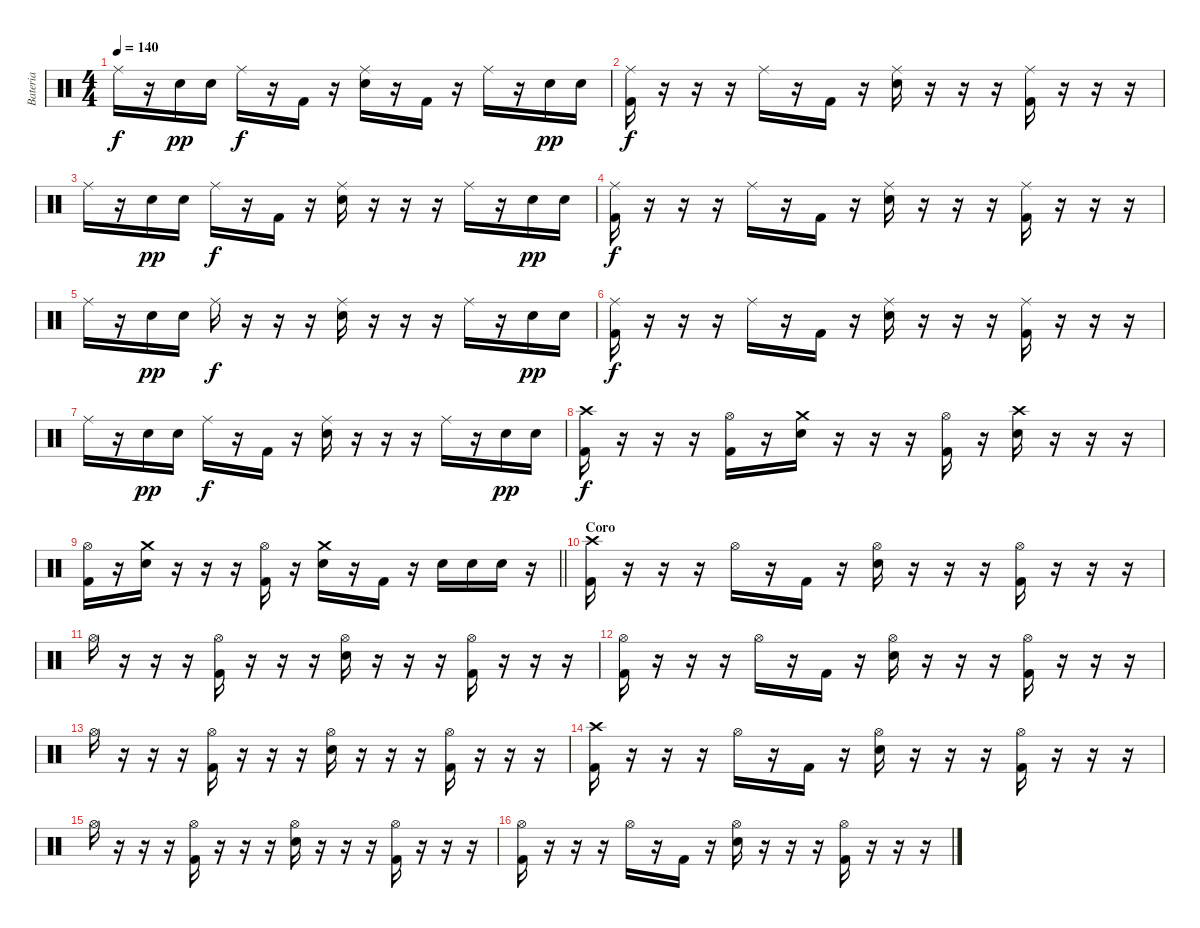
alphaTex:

\track ("Bateria" "Bateria") {instrument percussion}
\staff {score}
\articulation defaults
\ts (4 4)
\tempo 140
\clef neutral
\ks c "Ride (middle)".16{dy f}
r.16 "Electric Snare (hit)".16{dy pp} "Electric Snare (hit)".16 "Ride (middle)".16{dy f} r.16 "Kick (hit) 2".16 r.16 ("Ride (middle)" "Snare (hit) 2").16 r.16 "Kick (hit) 2".16 r.16 "Ride (middle)".16 r.16 "Electric Snare (hit)".16{dy pp} "Electric Snare (hit)".16 |
("Ride (middle)" "Kick (hit) 2").16{dy f} r.16 r.16 r.16 "Ride (middle)".16 r.16 "Kick (hit) 2".16 r.16 ("Ride (middle)" "Snare (hit) 2").16 r.16 r.16 r.16 ("Ride (middle)" "Kick (hit) 2").16 r.16 r.16 r.16 |
"Ride (middle)".16 r.16 "Electric Snare (hit)".16{dy pp} "Electric Snare (hit)".16 "Ride (middle)".16{dy f} r.16 "Kick (hit) 2".16 r.16 ("Ride (middle)" "Snare (hit) 2").16 r.16 r.16 r.16 "Ride (middle)".16 r.16 "Electric Snare (hit)".16{dy pp} "Electric Snare (hit)".16 |
("Ride (middle)" "Kick (hit) 2").16{dy f} r.16 r.16 r.16 "Ride (middle)".16 r.16 "Kick (hit) 2".16 r.16 ("Ride (middle)" "Snare (hit) 2").16 r.16 r.16 r.16 ("Ride (middle)" "Kick (hit) 2").16 r.16 r.16 r.16 |
"Ride (middle)".16 r.16 "Electric Snare (hit)".16{dy pp} "Electric Snare (hit)".16 "Ride (middle)".16{dy f} r.16 r.16 r.16 ("Ride (middle)" "Snare (hit) 2").16 r.16 r.16 r.16 "Ride (middle)".16 r.16 "Electric Snare (hit)".16{dy pp} "Electric Snare (hit)".16 |
("Ride (middle)" "Kick (hit) 2").16{dy f} r.16 r.16 r.16 "Ride (middle)".16 r.16 "Kick (hit) 2".16 r.16 ("Ride (middle)" "Snare (hit) 2").16 r.16 r.16 r.16 ("Ride (middle)" "Kick (hit) 2").16 r.16 r.16 r.16 |
"Ride (middle)".16 r.16 "Electric Snare (hit)".16{dy pp} "Electric Snare (hit)".16 "Ride (middle)".16{dy f} r.16 "Kick (hit) 2".16 r.16 ("Ride (middle)" "Snare (hit) 2").16 r.16 r.16 r.16 "Ride (middle)".16 r.16 "Electric Snare (hit)".16{dy pp} "Electric Snare (hit)".16 |
("Crash high (hit)" "Kick (hit) 2").16{dy f} r.16 r.16 r.16 ("Hi-Hat (open)" "Kick (hit) 2").16 r.16 ("Crash medium (hit)" "Snare (hit) 2").16 r.16 r.16 r.16 ("Hi-Hat (open)" "Kick (hit) 2").16 r.16 ("Crash high (hit)" "Snare (hit) 2").16 r.16 r.16 r.16 |
\barLineRight lightlight
("Hi-Hat (open)" "Kick (hit) 2").16 r.16 ("Crash medium (hit)" "Snare (hit) 2").16 r.16 r.16 r.16 ("Hi-Hat (open)" "Kick (hit) 2").16 r.16 ("Crash medium (hit)" "Snare (hit) 2").16 r.16 "Kick (hit) 2".16 r.16 "Snare (hit) 2".16 "Snare (hit) 2".16 "Snare (hit) 2".16 r.16 |
\section ("" "Coro")
("Crash high (hit)" "Kick (hit) 2").16 r.16 r.16 r.16 "Hi-Hat (open)".16 r.16 "Kick (hit) 2".16 r.16 ("Hi-Hat (open)" "Snare (hit) 2").16 r.16 r.16 r.16 ("Hi-Hat (open)" "Kick (hit) 2").16 r.16 r.16 r.16 |
"Hi-Hat (open)".16 r.16 r.16 r.16 ("Hi-Hat (open)" "Kick (hit) 2").16 r.16 r.16 r.16 ("Hi-Hat (open)" "Snare (hit) 2").16 r.16 r.16 r.16 ("Hi-Hat (open)" "Kick (hit) 2").16 r.16 r.16 r.16 |
("Hi-Hat (open)" "Kick (hit) 2").16 r.16 r.16 r.16 "Hi-Hat (open)".16 r.16 "Kick (hit) 2".16 r.16 ("Hi-Hat (open)" "Snare (hit) 2").16 r.16 r.16 r.16 ("Hi-Hat (open)" "Kick (hit) 2").16 r.16 r.16 r.16 |
"Hi-Hat (open)".16 r.16 r.16 r.16 ("Hi-Hat (open)" "Kick (hit) 2").16 r.16 r.16 r.16 ("Hi-Hat (open)" "Snare (hit) 2").16 r.16 r.16 r.16 ("Hi-Hat (open)" "Kick (hit) 2").16 r.16 r.16 r.16 |
("Crash high (hit)" "Kick (hit) 2").16 r.16 r.16 r.16 "Hi-Hat (open)".16 r.16 "Kick (hit) 2".16 r.16 ("Hi-Hat (open)" "Snare (hit) 2").16 r.16 r.16 r.16 ("Hi-Hat (open)" "Kick (hit) 2").16 r.16 r.16 r.16 |
"Hi-Hat (open)".16 r.16 r.16 r.16 ("Hi-Hat (open)" "Kick (hit) 2").16 r.16 r.16 r.16 ("Hi-Hat (open)" "Snare (hit) 2").16 r.16 r.16 r.16 ("Hi-Hat (open)" "Kick (hit) 2").16 r.16 r.16 r.16 |
("Hi-Hat (open)" "Kick (hit) 2").16 r.16 r.16 r.16 "Hi-Hat (open)".16 r.16 "Kick (hit) 2".16 r.16 ("Hi-Hat (open)" "Snare (hit) 2").16 r.16 r.16 r.16 ("Hi-Hat (open)" "Kick (hit) 2").16 r.16 r.16 r.16
